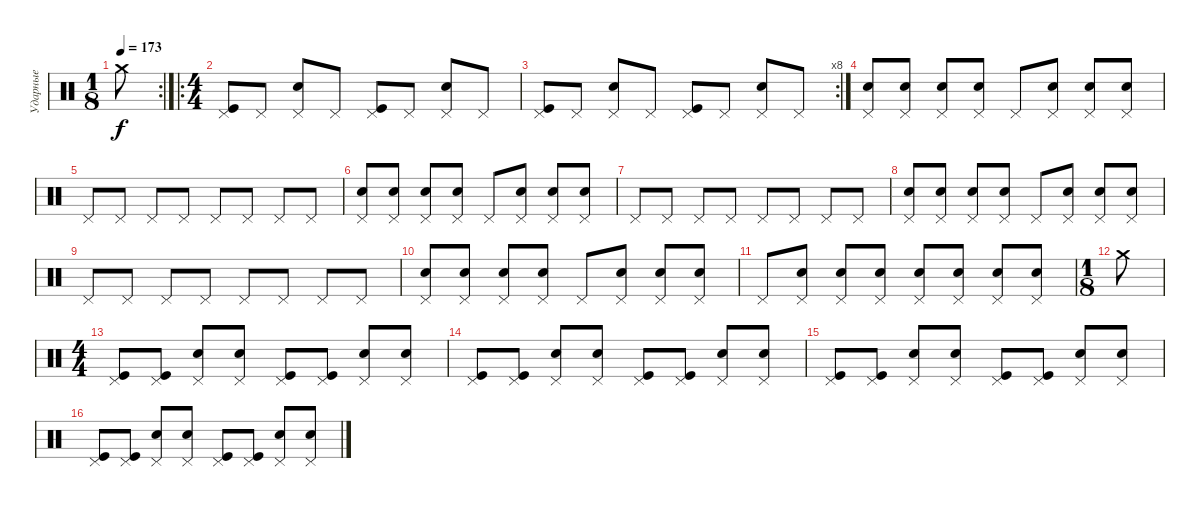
\track ("Ударные" "Ударные") {instrument percussion}
\staff {score}
\articulation defaults
\rc 2
\ts (1 8)
\tempo 173
\clef neutral
\ks c "Crash medium (hit)".8{dy f}
|
\ro
\ts (4 4)
("Pedal Hi-Hat (hit)" "Kick (hit)").8 "Pedal Hi-Hat (hit)".8 ("Pedal Hi-Hat (hit)" "Snare (hit) 2").8 "Pedal Hi-Hat (hit)".8 ("Pedal Hi-Hat (hit)" "Kick (hit)").8 "Pedal Hi-Hat (hit)".8 ("Pedal Hi-Hat (hit)" "Snare (hit) 2").8 "Pedal Hi-Hat (hit)".8 |
\rc 8
("Pedal Hi-Hat (hit)" "Kick (hit)").8 "Pedal Hi-Hat (hit)".8 ("Pedal Hi-Hat (hit)" "Snare (hit) 2").8 "Pedal Hi-Hat (hit)".8 ("Pedal Hi-Hat (hit)" "Kick (hit)").8 "Pedal Hi-Hat (hit)".8 ("Pedal Hi-Hat (hit)" "Snare (hit) 2").8 "Pedal Hi-Hat (hit)".8 |
("Pedal Hi-Hat (hit)" "Electric Snare (hit)").8 ("Pedal Hi-Hat (hit)" "Electric Snare (hit)").8 ("Pedal Hi-Hat (hit)" "Electric Snare (hit)").8 ("Pedal Hi-Hat (hit)" "Electric Snare (hit)").8 "Pedal Hi-Hat (hit)".8 ("Pedal Hi-Hat (hit)" "Electric Snare (hit)").8 ("Pedal Hi-Hat (hit)" "Electric Snare (hit)").8 ("Pedal Hi-Hat (hit)" "Electric Snare (hit)").8 |
"Pedal Hi-Hat (hit)".8 "Pedal Hi-Hat (hit)".8 "Pedal Hi-Hat (hit)".8 "Pedal Hi-Hat (hit)".8 "Pedal Hi-Hat (hit)".8 "Pedal Hi-Hat (hit)".8 "Pedal Hi-Hat (hit)".8 "Pedal Hi-Hat (hit)".8 |
("Pedal Hi-Hat (hit)" "Electric Snare (hit)").8 ("Pedal Hi-Hat (hit)" "Electric Snare (hit)").8 ("Pedal Hi-Hat (hit)" "Electric Snare (hit)").8 ("Pedal Hi-Hat (hit)" "Electric Snare (hit)").8 "Pedal Hi-Hat (hit)".8 ("Pedal Hi-Hat (hit)" "Electric Snare (hit)").8 ("Pedal Hi-Hat (hit)" "Electric Snare (hit)").8 ("Pedal Hi-Hat (hit)" "Electric Snare (hit)").8 |
"Pedal Hi-Hat (hit)".8 "Pedal Hi-Hat (hit)".8 "Pedal Hi-Hat (hit)".8 "Pedal Hi-Hat (hit)".8 "Pedal Hi-Hat (hit)".8 "Pedal Hi-Hat (hit)".8 "Pedal Hi-Hat (hit)".8 "Pedal Hi-Hat (hit)".8 |
("Pedal Hi-Hat (hit)" "Electric Snare (hit)").8 ("Pedal Hi-Hat (hit)" "Electric Snare (hit)").8 ("Pedal Hi-Hat (hit)" "Electric Snare (hit)").8 ("Pedal Hi-Hat (hit)" "Electric Snare (hit)").8 "Pedal Hi-Hat (hit)".8 ("Pedal Hi-Hat (hit)" "Electric Snare (hit)").8 ("Pedal Hi-Hat (hit)" "Electric Snare (hit)").8 ("Pedal Hi-Hat (hit)" "Electric Snare (hit)").8 |
"Pedal Hi-Hat (hit)".8 "Pedal Hi-Hat (hit)".8 "Pedal Hi-Hat (hit)".8 "Pedal Hi-Hat (hit)".8 "Pedal Hi-Hat (hit)".8 "Pedal Hi-Hat (hit)".8 "Pedal Hi-Hat (hit)".8 "Pedal Hi-Hat (hit)".8 |
("Pedal Hi-Hat (hit)" "Electric Snare (hit)").8 ("Pedal Hi-Hat (hit)" "Electric Snare (hit)").8 ("Pedal Hi-Hat (hit)" "Electric Snare (hit)").8 ("Pedal Hi-Hat (hit)" "Electric Snare (hit)").8 "Pedal Hi-Hat (hit)".8 ("Pedal Hi-Hat (hit)" "Electric Snare (hit)").8 ("Pedal Hi-Hat (hit)" "Electric Snare (hit)").8 ("Pedal Hi-Hat (hit)" "Electric Snare (hit)").8 |
"Pedal Hi-Hat (hit)".8 ("Pedal Hi-Hat (hit)" "Electric Snare (hit)").8 ("Pedal Hi-Hat (hit)" "Electric Snare (hit)").8 ("Pedal Hi-Hat (hit)" "Electric Snare (hit)").8 ("Pedal Hi-Hat (hit)" "Electric Snare (hit)").8 ("Pedal Hi-Hat (hit)" "Electric Snare (hit)").8 ("Pedal Hi-Hat (hit)" "Electric Snare (hit)").8 ("Pedal Hi-Hat (hit)" "Electric Snare (hit)").8 |
\ts (1 8)
"Crash medium (hit)".8 |
\ts (4 4)
("Pedal Hi-Hat (hit)" "Kick (hit)").8 ("Pedal Hi-Hat (hit)" "Kick (hit)").8 ("Pedal Hi-Hat (hit)" "Electric Snare (hit)").8 ("Pedal Hi-Hat (hit)" "Electric Snare (hit)").8 ("Pedal Hi-Hat (hit)" "Kick (hit)").8 ("Pedal Hi-Hat (hit)" "Kick (hit)").8 ("Pedal Hi-Hat (hit)" "Electric Snare (hit)").8 ("Pedal Hi-Hat (hit)" "Electric Snare (hit)").8 |
("Pedal Hi-Hat (hit)" "Kick (hit)").8 ("Pedal Hi-Hat (hit)" "Kick (hit)").8 ("Pedal Hi-Hat (hit)" "Electric Snare (hit)").8 ("Pedal Hi-Hat (hit)" "Electric Snare (hit)").8 ("Pedal Hi-Hat (hit)" "Kick (hit)").8 ("Pedal Hi-Hat (hit)" "Kick (hit)").8 ("Pedal Hi-Hat (hit)" "Electric Snare (hit)").8 ("Pedal Hi-Hat (hit)" "Electric Snare (hit)").8 |
("Pedal Hi-Hat (hit)" "Kick (hit)").8 ("Pedal Hi-Hat (hit)" "Kick (hit)").8 ("Pedal Hi-Hat (hit)" "Electric Snare (hit)").8 ("Pedal Hi-Hat (hit)" "Electric Snare (hit)").8 ("Pedal Hi-Hat (hit)" "Kick (hit)").8 ("Pedal Hi-Hat (hit)" "Kick (hit)").8 ("Pedal Hi-Hat (hit)" "Electric Snare (hit)").8 ("Pedal Hi-Hat (hit)" "Electric Snare (hit)").8 |
("Pedal Hi-Hat (hit)" "Kick (hit)").8 ("Pedal Hi-Hat (hit)" "Kick (hit)").8 ("Pedal Hi-Hat (hit)" "Electric Snare (hit)").8 ("Pedal Hi-Hat (hit)" "Electric Snare (hit)").8 ("Pedal Hi-Hat (hit)" "Kick (hit)").8 ("Pedal Hi-Hat (hit)" "Kick (hit)").8 ("Pedal Hi-Hat (hit)" "Electric Snare (hit)").8 ("Pedal Hi-Hat (hit)" "Electric Snare (hit)").8
